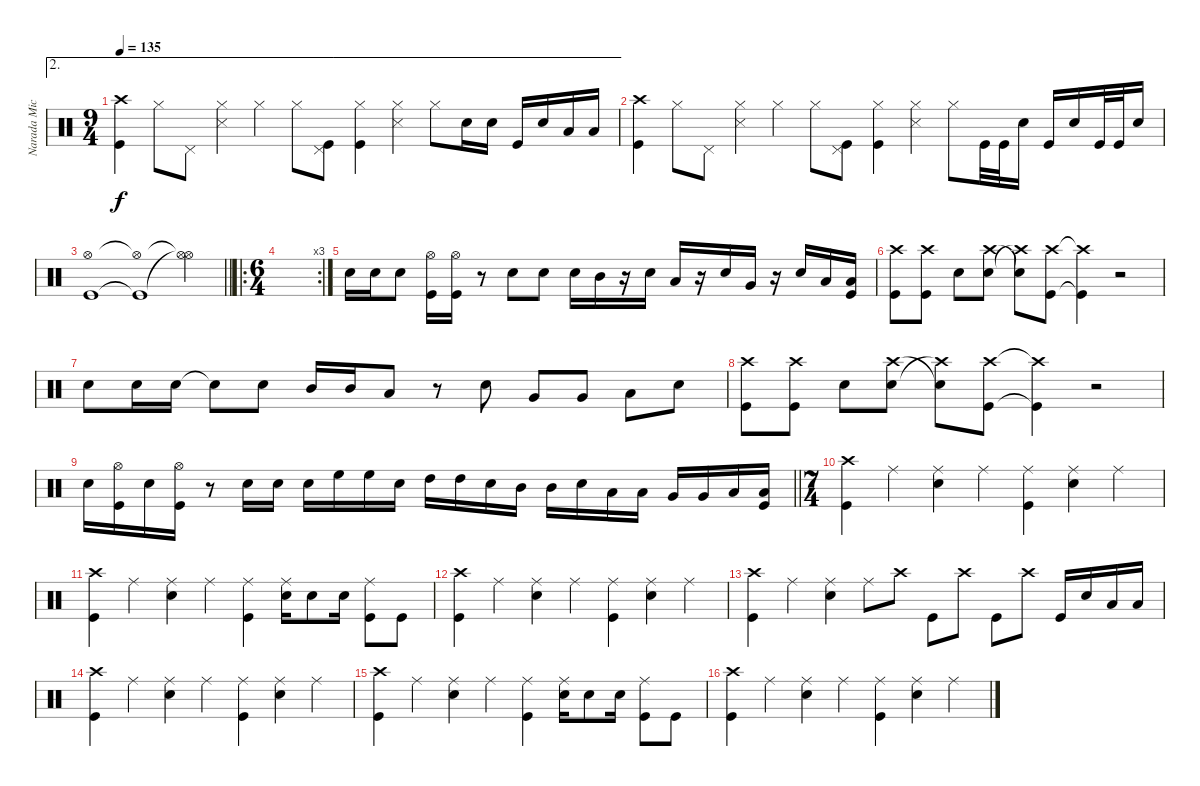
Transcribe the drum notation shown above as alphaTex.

\track ("Narada Michael Walden" "Narada Mic") {instrument percussion}
\staff {score}
\articulation defaults
\ae 2
\ts (9 4)
\tempo 135
\clef neutral
\ks c
("Kick (hit)" "Crash high (hit)").4{dy f} "Hi-Hat (closed)".8 "Pedal Hi-Hat (hit)".8 ("Hi-Hat (closed)" "Snare (side stick) 3").4 "Hi-Hat (closed)".4 "Hi-Hat (closed)".8 ("Pedal Hi-Hat (hit)" "Kick (hit)").8 ("Hi-Hat (closed)" "Kick (hit)").4 ("Hi-Hat (closed)" "Snare (side stick) 3").4 "Hi-Hat (closed)".8 "Snare (hit) 2".16 "Snare (hit) 2".16 "Kick (hit)".16 "Snare (hit) 2".16 "Low Tom (hit)".16 "Low Tom (hit)".16 |
("Kick (hit)" "Crash high (hit)").4 "Hi-Hat (closed)".8 "Pedal Hi-Hat (hit)".8 ("Hi-Hat (closed)" "Snare (side stick) 3").4 "Hi-Hat (closed)".4 "Hi-Hat (closed)".8 ("Pedal Hi-Hat (hit)" "Kick (hit)").8 ("Hi-Hat (closed)" "Kick (hit)").4 ("Hi-Hat (closed)" "Snare (side stick) 3").4 "Hi-Hat (closed)".8 "Kick (hit)".32 "Kick (hit)".32 "Snare (hit) 2".16 "Kick (hit)".16 "Snare (hit) 2".16 "Kick (hit)".32 "Kick (hit)".32 "Snare (hit) 2".16 |
\barLineRight lightlight
("Kick (hit)" "Hi-Hat (open)").1 ("Kick (hit)"{t} "Hi-Hat (open)"{t}).1 ("Hi-Hat (open)"{t} "Hi-Hat (open)"{t}).4 |
\ro
\rc 3
\ts (6 4)
|
"Snare (hit) 2".16 "Snare (hit) 2".16 "Snare (hit) 2".8 ("Kick (hit)" "Hi-Hat (open)").16 ("Hi-Hat (open)" "Kick (hit)").16 r.8 "Snare (hit) 2".8 "Snare (hit) 2".8 "Snare (hit) 2".16 "Mid Tom (hit)".16 r.16 "Snare (hit) 2".16 "Low Tom (hit)".16 r.16 "Snare (hit) 2".16 "Very Low Tom (hit)".16 r.16 "Snare (hit) 2".16 "Low Floor Tom (hit)".16 ("Low Floor Tom (hit)" "Kick (hit)").16 |
("Kick (hit)" "Crash high (hit)").8 ("Kick (hit)" "Crash high (hit)").8 "Snare (hit) 2".8 ("Snare (hit) 2" "Crash high (hit)").8 ("Crash high (hit)"{t} "Snare (hit) 2"{t}).8 ("Kick (hit)" "Crash high (hit)").8 ("Kick (hit)"{t} "Crash high (hit)"{t}).4 r.2 |
"Snare (hit) 2".8 "Snare (hit) 2".16 "Snare (hit) 2".16 "Snare (hit) 2"{t}.8 "Snare (hit) 2".8 "Mid Tom (hit)".16 "Mid Tom (hit)".16 "Low Tom (hit)".8 r.8 "Snare (hit) 2".8 "Very Low Tom (hit)".8 "Very Low Tom (hit)".8 "Low Floor Tom (hit)".8 "Snare (hit) 2".8 |
("Kick (hit)" "Crash high (hit)").8 ("Kick (hit)" "Crash high (hit)").8 "Snare (hit) 2".8 ("Snare (hit) 2" "Crash high (hit)").8 ("Crash high (hit)"{t} "Snare (hit) 2"{t}).8 ("Kick (hit)" "Crash high (hit)").8 ("Kick (hit)"{t} "Crash high (hit)"{t}).4 r.2 |
\barLineRight lightlight "Snare (hit) 2".16
("Kick (hit)" "Hi-Hat (open)").16 "Snare (hit) 2".16 ("Kick (hit)" "Hi-Hat (open)").16 r.8 "Snare (hit) 2".16 "Snare (hit) 2".16 "Snare (hit) 2".16 "High Floor Tom (hit)".16 "High Floor Tom (hit)".16 "Snare (hit) 2".16 "High Tom (hit)".16 "High Tom (hit)".16 "Snare (hit) 2".16 "Mid Tom (hit)".16 "Mid Tom (hit)".16 "Snare (hit) 2".16 "Low Tom (hit)".16 "Low Tom (hit)".16 "Very Low Tom (hit)".16 "Very Low Tom (hit)".16 "Low Floor Tom (hit)".16 ("Low Floor Tom (hit)" "Kick (hit)").16 |
\ts (7 4)
("Kick (hit)" "Crash high (hit)").4 "Ride (middle)".4 ("Ride (middle)" "Snare (hit) 2").4 "Ride (middle)".4 ("Ride (middle)" "Kick (hit)").4 ("Ride (middle)" "Snare (hit) 2").4 "Ride (middle)".4 |
("Kick (hit)" "Crash high (hit)").4 "Ride (middle)".4 ("Ride (middle)" "Snare (hit) 2").4 "Ride (middle)".4 ("Ride (middle)" "Kick (hit)").4 ("Ride (middle)" "Snare (hit) 2").16 "Snare (hit) 2".8 "Snare (hit) 2".16 ("Kick (hit)" "Ride (middle)").8 "Kick (hit)".8 |
("Kick (hit)" "Crash high (hit)").4 "Ride (middle)".4 ("Ride (middle)" "Snare (hit) 2").4 "Ride (middle)".4 ("Ride (middle)" "Kick (hit)").4 ("Ride (middle)" "Snare (hit) 2").4 "Ride (middle)".4 |
("Kick (hit)" "Crash high (hit)").4 "Ride (middle)".4 ("Ride (middle)" "Snare (hit) 2").4 "Ride (middle)".8 "Crash high (hit)".8 "Kick (hit)".8 "Crash high (hit)".8 "Kick (hit)".8 "Crash high (hit)".8 "Kick (hit)".16 "Snare (hit) 2".16 "Low Tom (hit)".16 "Low Tom (hit)".16 |
("Kick (hit)" "Crash high (hit)").4 "Ride (middle)".4 ("Ride (middle)" "Snare (hit) 2").4 "Ride (middle)".4 ("Ride (middle)" "Kick (hit)").4 ("Ride (middle)" "Snare (hit) 2").4 "Ride (middle)".4 |
("Kick (hit)" "Crash high (hit)").4 "Ride (middle)".4 ("Ride (middle)" "Snare (hit) 2").4 "Ride (middle)".4 ("Ride (middle)" "Kick (hit)").4 ("Ride (middle)" "Snare (hit) 2").16 "Snare (hit) 2".8 "Snare (hit) 2".16 ("Kick (hit)" "Ride (middle)").8 "Kick (hit)".8 |
("Kick (hit)" "Crash high (hit)").4 "Ride (middle)".4 ("Ride (middle)" "Snare (hit) 2").4 "Ride (middle)".4 ("Ride (middle)" "Kick (hit)").4 ("Ride (middle)" "Snare (hit) 2").4 "Ride (middle)".4
